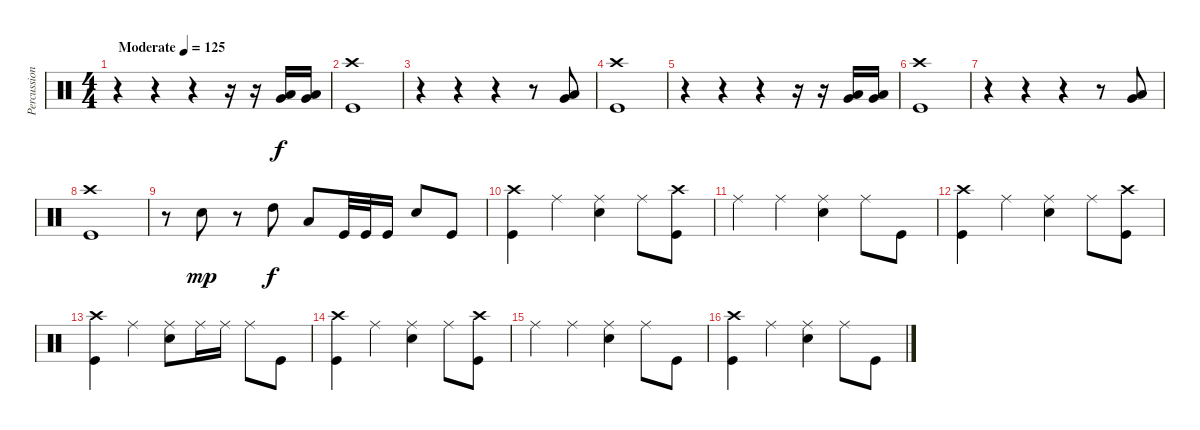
\track ("Percussion" "Percussion") {instrument percussion}
\staff {score}
\articulation defaults
\ts (4 4)
\tempo (125 "Moderate")
\clef neutral
\ks c
r.4{dy f} r.4 r.4 r.16 r.16 ("Low Floor Tom (hit)" "Very Low Tom (hit)").16 ("Low Floor Tom (hit)" "Very Low Tom (hit)").16 |
("Kick (hit)" "Crash high (hit)").1 |
r.4 r.4 r.4 r.8 ("Low Floor Tom (hit)" "Very Low Tom (hit)").8 |
("Kick (hit)" "Crash high (hit)").1 |
r.4 r.4 r.4 r.16 r.16 ("Low Floor Tom (hit)" "Very Low Tom (hit)").16 ("Low Floor Tom (hit)" "Very Low Tom (hit)").16 |
("Kick (hit)" "Crash high (hit)").1 |
r.4 r.4 r.4 r.8 ("Low Floor Tom (hit)" "Very Low Tom (hit)").8 |
("Kick (hit)" "Crash high (hit)").1 |
r.8 "Snare (hit) 2".8{dy mp} r.8 "High Tom (hit)".8{dy f} "Low Tom (hit)".8 "Kick (hit)".32 "Kick (hit)".32 "Kick (hit)".16 "Snare (hit) 2".8 "Kick (hit)".8 |
("Kick (hit)" "Crash high (hit)").4 "Ride (middle)".4 ("Snare (hit) 2" "Ride (middle)").4 "Ride (middle)".8 ("Kick (hit)" "Crash high (hit)").8 |
"Ride (middle)".4 "Ride (middle)".4 ("Snare (hit) 2" "Ride (middle)").4 "Ride (middle)".8 "Kick (hit)".8 |
("Kick (hit)" "Crash high (hit)").4 "Ride (middle)".4 ("Snare (hit) 2" "Ride (middle)").4 "Ride (middle)".8 ("Kick (hit)" "Crash high (hit)").8 |
("Kick (hit)" "Crash high (hit)").4 "Ride (middle)".4 ("Snare (hit) 2" "Ride (middle)").8 "Ride (middle)".16 "Ride (middle)".16 "Ride (middle)".8 "Kick (hit)".8 |
("Kick (hit)" "Crash high (hit)").4 "Ride (middle)".4 ("Snare (hit) 2" "Ride (middle)").4 "Ride (middle)".8 ("Kick (hit)" "Crash high (hit)").8 |
"Ride (middle)".4 "Ride (middle)".4 ("Snare (hit) 2" "Ride (middle)").4 "Ride (middle)".8 "Kick (hit)".8 |
("Kick (hit)" "Crash high (hit)").4 "Ride (middle)".4 ("Snare (hit) 2" "Ride (middle)").4 "Ride (middle)".8 "Kick (hit)".8
